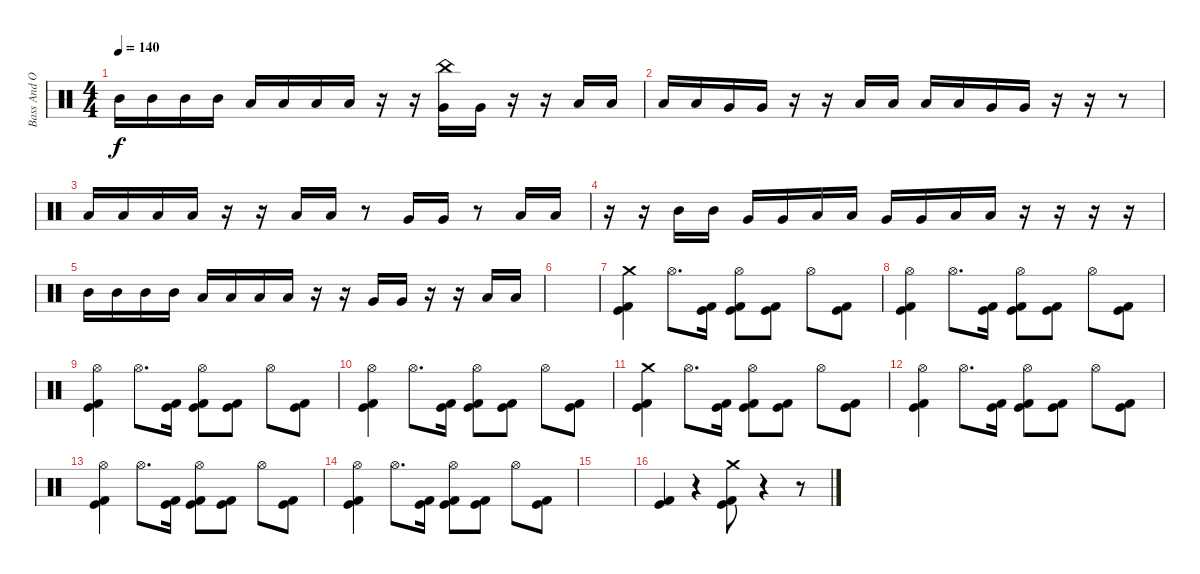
\track ("Bass And Other Things" "Bass And O") {instrument percussion}
\staff {score}
\articulation defaults
\ts (4 4)
\tempo 140
\clef neutral
\ks c "Mid Tom (hit)".16{dy f} "Mid Tom (hit)".16 "Mid Tom (hit)".16 "Mid Tom (hit)".16 "Low Tom (hit)".16 "Low Tom (hit)".16 "Low Tom (hit)".16 "Low Tom (hit)".16
r.16 r.16 ("Very Low Tom (hit)" "China (hit)").16 "Very Low Tom (hit)".16 r.16 r.16 "Low Floor Tom (hit)".16 "Low Floor Tom (hit)".16 |
"Low Tom (hit)".16 "Low Tom (hit)".16 "Very Low Tom (hit)".16 "Very Low Tom (hit)".16 r.16 r.16 "Low Tom (hit)".16 "Low Tom (hit)".16 "Low Tom (hit)".16 "Low Tom (hit)".16 "Very Low Tom (hit)".16 "Very Low Tom (hit)".16 r.16 r.16 r.8 |
"Low Tom (hit)".16 "Low Tom (hit)".16 "Low Tom (hit)".16 "Low Tom (hit)".16 r.16 r.16 "Low Tom (hit)".16 "Low Tom (hit)".16 r.8 "Very Low Tom (hit)".16 "Very Low Tom (hit)".16 r.8 "Low Floor Tom (hit)".16 "Low Floor Tom (hit)".16 |
r.16 r.16 "Mid Tom (hit)".16 "Mid Tom (hit)".16 "Very Low Tom (hit)".16 "Very Low Tom (hit)".16 "Low Tom (hit)".16 "Low Tom (hit)".16 "Very Low Tom (hit)".16 "Very Low Tom (hit)".16 "Low Floor Tom (hit)".16 "Low Floor Tom (hit)".16 r.16 r.16 r.16 r.16 |
"Mid Tom (hit)".16 "Mid Tom (hit)".16 "Mid Tom (hit)".16 "Mid Tom (hit)".16 "Low Tom (hit)".16 "Low Tom (hit)".16 "Low Tom (hit)".16 "Low Tom (hit)".16 r.16 r.16 "Very Low Tom (hit)".16 "Very Low Tom (hit)".16 r.16 r.16 "Low Floor Tom (hit)".16 "Low Floor Tom (hit)".16 |
|
("Kick (hit) 2" "Kick (hit)" "Crash medium (hit)").4 "Hi-Hat (open)".8{d} ("Kick (hit)" "Kick (hit) 2").16 ("Kick (hit) 2" "Kick (hit)" "Hi-Hat (open)").8 ("Kick (hit) 2" "Kick (hit)").8 "Hi-Hat (open)".8 ("Kick (hit)" "Kick (hit) 2").8 |
("Kick (hit) 2" "Kick (hit)" "Hi-Hat (open)").4 "Hi-Hat (open)".8{d} ("Kick (hit)" "Kick (hit) 2").16 ("Kick (hit) 2" "Kick (hit)" "Hi-Hat (open)").8 ("Kick (hit) 2" "Kick (hit)").8 "Hi-Hat (open)".8 ("Kick (hit)" "Kick (hit) 2").8 |
("Kick (hit) 2" "Kick (hit)" "Hi-Hat (open)").4 "Hi-Hat (open)".8{d} ("Kick (hit)" "Kick (hit) 2").16 ("Kick (hit) 2" "Kick (hit)" "Hi-Hat (open)").8 ("Kick (hit) 2" "Kick (hit)").8 "Hi-Hat (open)".8 ("Kick (hit)" "Kick (hit) 2").8 |
("Kick (hit) 2" "Kick (hit)" "Hi-Hat (open)").4 "Hi-Hat (open)".8{d} ("Kick (hit)" "Kick (hit) 2").16 ("Kick (hit) 2" "Kick (hit)" "Hi-Hat (open)").8 ("Kick (hit) 2" "Kick (hit)").8 "Hi-Hat (open)".8 ("Kick (hit)" "Kick (hit) 2").8 |
("Kick (hit) 2" "Kick (hit)" "Crash medium (hit)").4 "Hi-Hat (open)".8{d} ("Kick (hit)" "Kick (hit) 2").16 ("Kick (hit) 2" "Kick (hit)" "Hi-Hat (open)").8 ("Kick (hit) 2" "Kick (hit)").8 "Hi-Hat (open)".8 ("Kick (hit)" "Kick (hit) 2").8 |
("Kick (hit) 2" "Kick (hit)" "Hi-Hat (open)").4 "Hi-Hat (open)".8{d} ("Kick (hit)" "Kick (hit) 2").16 ("Kick (hit) 2" "Kick (hit)" "Hi-Hat (open)").8 ("Kick (hit) 2" "Kick (hit)").8 "Hi-Hat (open)".8 ("Kick (hit)" "Kick (hit) 2").8 |
("Kick (hit) 2" "Kick (hit)" "Hi-Hat (open)").4 "Hi-Hat (open)".8{d} ("Kick (hit)" "Kick (hit) 2").16 ("Kick (hit) 2" "Kick (hit)" "Hi-Hat (open)").8 ("Kick (hit) 2" "Kick (hit)").8 "Hi-Hat (open)".8 ("Kick (hit)" "Kick (hit) 2").8 |
("Kick (hit) 2" "Kick (hit)" "Hi-Hat (open)").4 "Hi-Hat (open)".8{d} ("Kick (hit)" "Kick (hit) 2").16 ("Kick (hit) 2" "Kick (hit)" "Hi-Hat (open)").8 ("Kick (hit) 2" "Kick (hit)").8 "Hi-Hat (open)".8 ("Kick (hit)" "Kick (hit) 2").8 |
|
("Kick (hit) 2" "Kick (hit)").4 r.4 ("Crash medium (hit)" "Kick (hit)" "Kick (hit) 2").8 r.4 r.8
